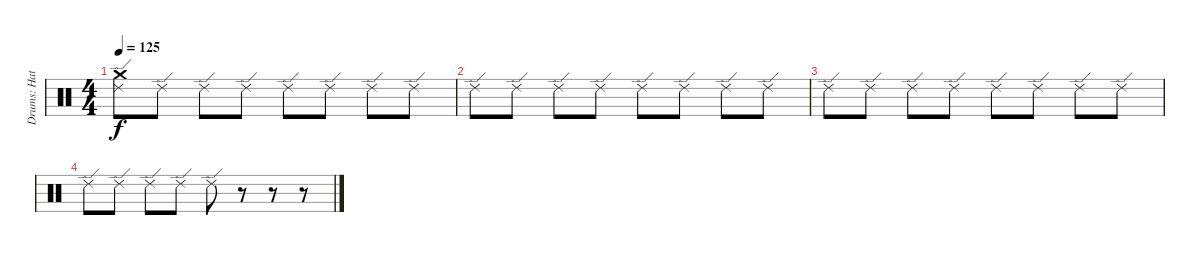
\track ("Drums: Hats, Etc" "Drums: Hat") {instrument percussion}
\staff {score}
\articulation defaults
\ts (4 4)
\tempo 125
\clef neutral
\ks c
("Ride (edge) 2" "Crash medium (hit)").8{dy f} "Ride (edge) 2".8 "Ride (edge) 2".8 "Ride (edge) 2".8 "Ride (edge) 2".8 "Ride (edge) 2".8 "Ride (edge) 2".8 "Ride (edge) 2".8 |
"Ride (edge) 2".8 "Ride (edge) 2".8 "Ride (edge) 2".8 "Ride (edge) 2".8 "Ride (edge) 2".8 "Ride (edge) 2".8 "Ride (edge) 2".8 "Ride (edge) 2".8 |
"Ride (edge) 2".8 "Ride (edge) 2".8 "Ride (edge) 2".8 "Ride (edge) 2".8 "Ride (edge) 2".8 "Ride (edge) 2".8 "Ride (edge) 2".8 "Ride (edge) 2".8 |
"Ride (edge) 2".8 "Ride (edge) 2".8 "Ride (edge) 2".8 "Ride (edge) 2".8 "Ride (edge) 2".8 r.8 r.8 r.8
